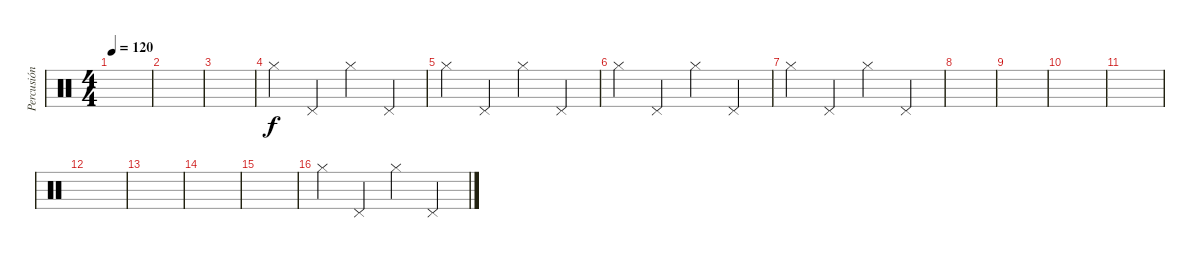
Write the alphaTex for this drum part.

\track ("Percusión" "Percusión") {instrument percussion}
\staff {score}
\articulation defaults
\ts (4 4)
\tempo 120
\clef neutral
\ks c
|
|
|
"Hi-Hat (closed)".4 "Pedal Hi-Hat (hit)".4 "Hi-Hat (closed)".4 "Pedal Hi-Hat (hit)".4 |
"Hi-Hat (closed)".4 "Pedal Hi-Hat (hit)".4 "Hi-Hat (closed)".4 "Pedal Hi-Hat (hit)".4 |
"Hi-Hat (closed)".4 "Pedal Hi-Hat (hit)".4 "Hi-Hat (closed)".4 "Pedal Hi-Hat (hit)".4 |
"Hi-Hat (closed)".4 "Pedal Hi-Hat (hit)".4 "Hi-Hat (closed)".4 "Pedal Hi-Hat (hit)".4 |
|
|
|
|
|
|
|
|
"Hi-Hat (closed)".4 "Pedal Hi-Hat (hit)".4 "Hi-Hat (closed)".4 "Pedal Hi-Hat (hit)".4
